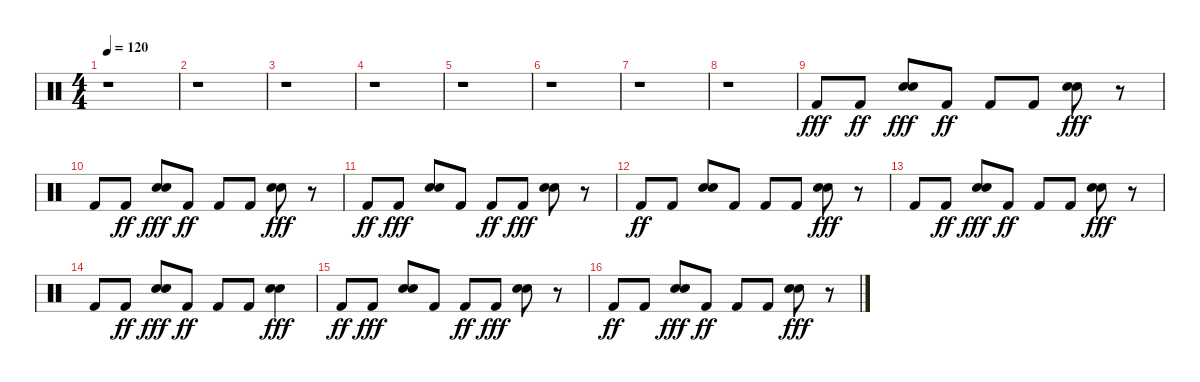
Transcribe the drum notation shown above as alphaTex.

\track "" {instrument percussion}
\staff {score}
\articulation defaults
\ts (4 4)
\tempo 120
\clef neutral
\ks c
r.1{dy fff} |
r.1 |
r.1 |
r.1 |
r.1 |
r.1 |
r.1 |
r.1 |
"Kick (hit) 2".8 "Kick (hit) 2".8{dy ff} ("Electric Snare (hit)" "Snare (hit) 2").8{dy fff} "Kick (hit) 2".8{dy ff} "Kick (hit) 2".8 "Kick (hit) 2".8 ("Electric Snare (hit)" "Snare (hit) 2").8{dy fff} r.8 |
"Kick (hit) 2".8 "Kick (hit) 2".8{dy ff} ("Electric Snare (hit)" "Snare (hit) 2").8{dy fff} "Kick (hit) 2".8{dy ff} "Kick (hit) 2".8 "Kick (hit) 2".8 ("Snare (hit) 2" "Electric Snare (hit)").8{dy fff} r.8 |
"Kick (hit) 2".8{dy ff} "Kick (hit) 2".8{dy fff} ("Electric Snare (hit)" "Snare (hit) 2").8 "Kick (hit) 2".8 "Kick (hit) 2".8{dy ff} "Kick (hit) 2".8{dy fff} ("Snare (hit) 2" "Electric Snare (hit)").8 r.8 |
"Kick (hit) 2".8{dy ff} "Kick (hit) 2".8 ("Snare (hit) 2" "Electric Snare (hit)").8 "Kick (hit) 2".8 "Kick (hit) 2".8 "Kick (hit) 2".8 ("Electric Snare (hit)" "Snare (hit) 2").8{dy fff} r.8 |
"Kick (hit) 2".8 "Kick (hit) 2".8{dy ff} ("Electric Snare (hit)" "Snare (hit) 2").8{dy fff} "Kick (hit) 2".8{dy ff} "Kick (hit) 2".8 "Kick (hit) 2".8 ("Electric Snare (hit)" "Snare (hit) 2").8{dy fff} r.8 |
"Kick (hit) 2".8 "Kick (hit) 2".8{dy ff} ("Electric Snare (hit)" "Snare (hit) 2").8{dy fff} "Kick (hit) 2".8{dy ff} "Kick (hit) 2".8 "Kick (hit) 2".8 ("Electric Snare (hit)" "Snare (hit) 2").4{dy fff} |
"Kick (hit) 2".8{dy ff} "Kick (hit) 2".8{dy fff} ("Snare (hit) 2" "Electric Snare (hit)").8 "Kick (hit) 2".8 "Kick (hit) 2".8{dy ff} "Kick (hit) 2".8{dy fff} ("Snare (hit) 2" "Electric Snare (hit)").8 r.8 |
"Kick (hit) 2".8{dy ff} "Kick (hit) 2".8 ("Electric Snare (hit)" "Snare (hit) 2").8{dy fff} "Kick (hit) 2".8{dy ff} "Kick (hit) 2".8 "Kick (hit) 2".8 ("Snare (hit) 2" "Electric Snare (hit)").8{dy fff} r.8
